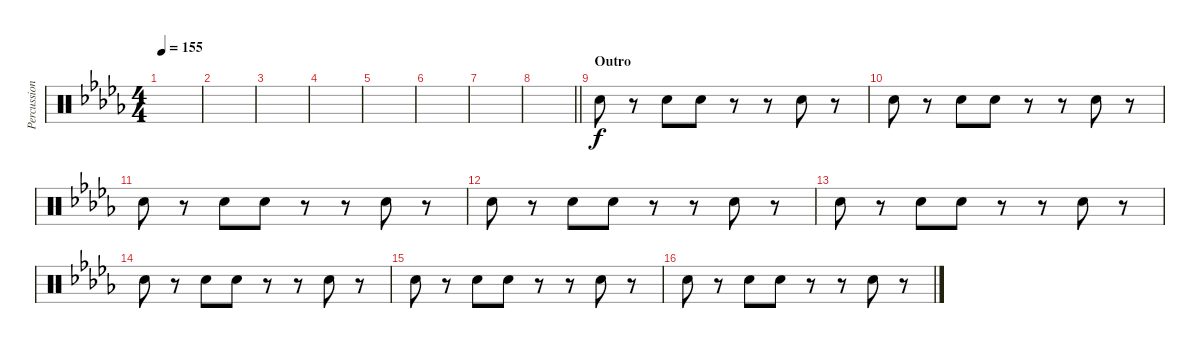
\track ("Percussions" "Percussion") {instrument percussion}
\staff {score}
\articulation defaults
\ts (4 4)
\tempo 155
\clef neutral
\ks db
|
|
|
|
|
|
|
\barLineRight lightlight
|
\section ("" "Outro")
"Hand Clap (hit)".8 r.8 "Hand Clap (hit)".8 "Hand Clap (hit)".8 r.8 r.8 "Hand Clap (hit)".8 r.8 |
"Hand Clap (hit)".8 r.8 "Hand Clap (hit)".8 "Hand Clap (hit)".8 r.8 r.8 "Hand Clap (hit)".8 r.8 |
"Hand Clap (hit)".8 r.8 "Hand Clap (hit)".8 "Hand Clap (hit)".8 r.8 r.8 "Hand Clap (hit)".8 r.8 |
"Hand Clap (hit)".8{volume 0} r.8 "Hand Clap (hit)".8 "Hand Clap (hit)".8 r.8 r.8 "Hand Clap (hit)".8 r.8 |
"Hand Clap (hit)".8 r.8 "Hand Clap (hit)".8 "Hand Clap (hit)".8 r.8 r.8 "Hand Clap (hit)".8 r.8 |
"Hand Clap (hit)".8 r.8 "Hand Clap (hit)".8 "Hand Clap (hit)".8 r.8 r.8 "Hand Clap (hit)".8 r.8 |
"Hand Clap (hit)".8 r.8 "Hand Clap (hit)".8 "Hand Clap (hit)".8 r.8 r.8 "Hand Clap (hit)".8 r.8 |
"Hand Clap (hit)".8 r.8 "Hand Clap (hit)".8 "Hand Clap (hit)".8 r.8 r.8 "Hand Clap (hit)".8 r.8
